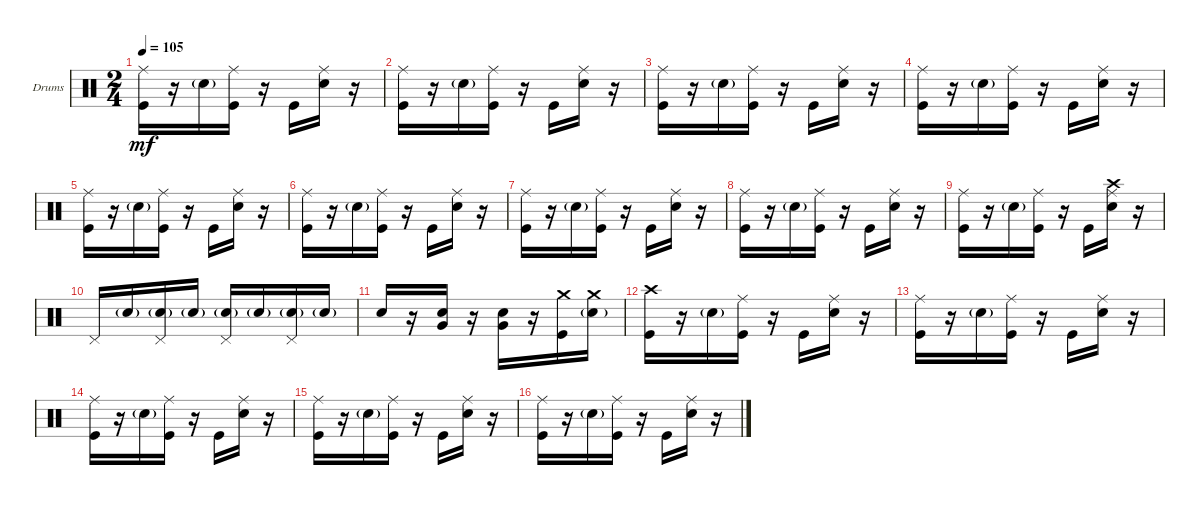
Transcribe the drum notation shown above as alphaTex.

\defaultSystemsLayout 4
\bracketExtendMode groupsimilarinstruments
\firstSystemTrackNameOrientation horizontal
\otherSystemsTrackNameOrientation horizontal
\track ("Godd" "Drums") {instrument percussion}
\staff {score}
\articulation defaults
\ts (2 4)
\tempo 105
\clef neutral
\ks c
("Ride (middle)" "Kick (hit)").16{dy mf} r.16 "Snare (hit) 2"{g}.16 ("Kick (hit)" "Ride (middle)").16 r.16 "Kick (hit)".16 ("Snare (hit) 2" "Ride (middle)").16 r.16 |
("Ride (middle)" "Kick (hit)").16 r.16 "Snare (hit) 2"{g}.16 ("Kick (hit)" "Ride (middle)").16 r.16 "Kick (hit)".16 ("Snare (hit) 2" "Ride (middle)").16 r.16 |
("Ride (middle)" "Kick (hit)").16 r.16 "Snare (hit) 2"{g}.16 ("Kick (hit)" "Ride (middle)").16 r.16 "Kick (hit)".16 ("Snare (hit) 2" "Ride (middle)").16 r.16 |
("Ride (middle)" "Kick (hit)").16 r.16 "Snare (hit) 2"{g}.16 ("Kick (hit)" "Ride (middle)").16 r.16 "Kick (hit)".16 ("Snare (hit) 2" "Ride (middle)").16 r.16 |
("Ride (middle)" "Kick (hit)").16 r.16 "Snare (hit) 2"{g}.16 ("Kick (hit)" "Ride (middle)").16 r.16 "Kick (hit)".16 ("Snare (hit) 2" "Ride (middle)").16 r.16 |
("Ride (middle)" "Kick (hit)").16 r.16 "Snare (hit) 2"{g}.16 ("Kick (hit)" "Ride (middle)").16 r.16 "Kick (hit)".16 ("Snare (hit) 2" "Ride (middle)").16 r.16 |
("Ride (middle)" "Kick (hit)").16 r.16 "Snare (hit) 2"{g}.16 ("Kick (hit)" "Ride (middle)").16 r.16 "Kick (hit)".16 ("Snare (hit) 2" "Ride (middle)").16 r.16 |
("Ride (middle)" "Kick (hit)").16 r.16 "Snare (hit) 2"{g}.16 ("Kick (hit)" "Ride (middle)").16 r.16 "Kick (hit)".16 ("Snare (hit) 2" "Ride (middle)").16 r.16 |
("Ride (middle)" "Kick (hit)").16 r.16 "Snare (hit) 2"{g}.16 ("Kick (hit)" "Ride (middle)").16 r.16 "Kick (hit)".16 ("Snare (hit) 2" "Ride (middle)" "Crash high (hit)").16 r.16 |
"Pedal Hi-Hat (hit)".16 "Snare (hit) 2"{g}.16 ("Snare (hit) 2"{g} "Pedal Hi-Hat (hit)").16 "Snare (hit) 2"{g}.16 ("Pedal Hi-Hat (hit)" "Snare (hit) 2"{g}).16 "Snare (hit) 2"{g}.16 ("Snare (hit) 2"{g} "Pedal Hi-Hat (hit)").16 "Snare (hit) 2"{g}.16 |
"Snare (hit) 2".16 r.16 ("Snare (hit) 2" "Very Low Tom (hit)").16 r.16 ("Snare (hit) 2" "Very Low Tom (hit)").16 r.16 ("Kick (hit)" "Crash medium (hit)").16 ("Crash medium (hit)" "Snare (hit) 2"{g}).16 |
("Kick (hit)" "Crash high (hit)").16 r.16 "Snare (hit) 2"{g}.16 ("Kick (hit)" "Ride (middle)").16 r.16 "Kick (hit)".16 ("Ride (middle)" "Snare (hit) 2").16 r.16 |
("Ride (middle)" "Kick (hit)").16 r.16 "Snare (hit) 2"{g}.16 ("Kick (hit)" "Ride (middle)").16 r.16 "Kick (hit)".16 ("Snare (hit) 2" "Ride (middle)").16 r.16 |
("Ride (middle)" "Kick (hit)").16 r.16 "Snare (hit) 2"{g}.16 ("Kick (hit)" "Ride (middle)").16 r.16 "Kick (hit)".16 ("Snare (hit) 2" "Ride (middle)").16 r.16 |
("Ride (middle)" "Kick (hit)").16 r.16 "Snare (hit) 2"{g}.16 ("Kick (hit)" "Ride (middle)").16 r.16 "Kick (hit)".16 ("Snare (hit) 2" "Ride (middle)").16 r.16 |
("Ride (middle)" "Kick (hit)").16 r.16 "Snare (hit) 2"{g}.16 ("Kick (hit)" "Ride (middle)").16 r.16 "Kick (hit)".16 ("Snare (hit) 2" "Ride (middle)").16 r.16
